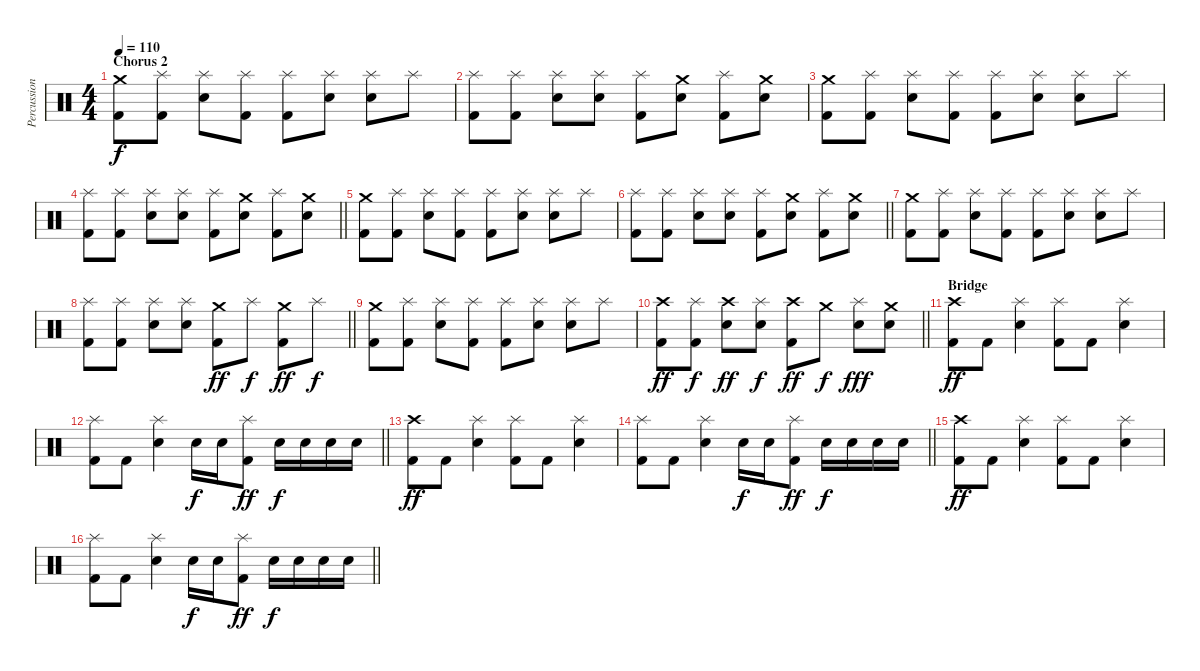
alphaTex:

\track ("Percussion" "Percussion") {instrument percussion}
\staff {score}
\articulation defaults
\ts (4 4)
\section ("" "Chorus 2")
\tempo 110
\clef neutral
\ks c
("Crash medium (hit)" "Kick (hit) 2").8{dy f} ("Splash (hit)" "Kick (hit) 2").8 ("Splash (hit)" "Snare (hit) 2").8 ("Splash (hit)" "Kick (hit) 2").8 ("Splash (hit)" "Kick (hit) 2").8 ("Splash (hit)" "Snare (hit) 2").8 ("Splash (hit)" "Snare (hit) 2").8 "Splash (hit)".8 |
("Splash (hit)" "Kick (hit) 2").8 ("Splash (hit)" "Kick (hit) 2").8 ("Splash (hit)" "Snare (hit) 2").8 ("Splash (hit)" "Snare (hit) 2").8 ("Splash (hit)" "Kick (hit) 2").8 ("Crash medium (hit)" "Snare (hit) 2").8 ("Splash (hit)" "Kick (hit) 2").8 ("Crash medium (hit)" "Snare (hit) 2").8 |
("Crash medium (hit)" "Kick (hit) 2").8 ("Splash (hit)" "Kick (hit) 2").8 ("Splash (hit)" "Snare (hit) 2").8 ("Splash (hit)" "Kick (hit) 2").8 ("Splash (hit)" "Kick (hit) 2").8 ("Splash (hit)" "Snare (hit) 2").8 ("Splash (hit)" "Snare (hit) 2").8 "Splash (hit)".8 |
\barLineRight lightlight
("Splash (hit)" "Kick (hit) 2").8 ("Splash (hit)" "Kick (hit) 2").8 ("Splash (hit)" "Snare (hit) 2").8 ("Splash (hit)" "Snare (hit) 2").8 ("Splash (hit)" "Kick (hit) 2").8 ("Crash medium (hit)" "Snare (hit) 2").8 ("Splash (hit)" "Kick (hit) 2").8 ("Crash medium (hit)" "Snare (hit) 2").8 |
("Crash medium (hit)" "Kick (hit) 2").8 ("Splash (hit)" "Kick (hit) 2").8 ("Splash (hit)" "Snare (hit) 2").8 ("Splash (hit)" "Kick (hit) 2").8 ("Splash (hit)" "Kick (hit) 2").8 ("Splash (hit)" "Snare (hit) 2").8 ("Splash (hit)" "Snare (hit) 2").8 "Splash (hit)".8 |
\barLineRight lightlight
("Splash (hit)" "Kick (hit) 2").8 ("Splash (hit)" "Kick (hit) 2").8 ("Splash (hit)" "Snare (hit) 2").8 ("Splash (hit)" "Snare (hit) 2").8 ("Splash (hit)" "Kick (hit) 2").8 ("Crash medium (hit)" "Snare (hit) 2").8 ("Splash (hit)" "Kick (hit) 2").8 ("Crash medium (hit)" "Snare (hit) 2").8 |
("Crash medium (hit)" "Kick (hit) 2").8 ("Splash (hit)" "Kick (hit) 2").8 ("Splash (hit)" "Snare (hit) 2").8 ("Splash (hit)" "Kick (hit) 2").8 ("Splash (hit)" "Kick (hit) 2").8 ("Splash (hit)" "Snare (hit) 2").8 ("Splash (hit)" "Snare (hit) 2").8 "Splash (hit)".8 |
\barLineRight lightlight
("Splash (hit)" "Kick (hit) 2").8 ("Splash (hit)" "Kick (hit) 2").8 ("Splash (hit)" "Snare (hit) 2").8 ("Splash (hit)" "Snare (hit) 2").8 ("Crash medium (hit)" "Kick (hit) 2").8{dy ff} "Splash (hit)".8{dy f} ("Crash medium (hit)" "Kick (hit) 2").8{dy ff} "Splash (hit)".8{dy f} |
("Crash medium (hit)" "Kick (hit) 2").8 ("Splash (hit)" "Kick (hit) 2").8 ("Splash (hit)" "Snare (hit) 2").8 ("Splash (hit)" "Kick (hit) 2").8 ("Splash (hit)" "Kick (hit) 2").8 ("Splash (hit)" "Snare (hit) 2").8 ("Splash (hit)" "Snare (hit) 2").8 "Splash (hit)".8 |
\barLineRight lightlight
("Crash high (hit)" "Kick (hit) 2").8{dy ff} ("Splash (hit)" "Kick (hit) 2").8{dy f} ("Crash high (hit)" "Snare (hit) 2").8{dy ff} ("Splash (hit)" "Snare (hit) 2").8{dy f} ("Crash high (hit)" "Kick (hit) 2").8{dy ff} "Crash medium (hit)".8{dy f} ("Splash (hit)" "Snare (hit) 2").8{dy fff} ("Crash medium (hit)" "Snare (hit) 2").8 |
\section ("" "Bridge")
("Crash high (hit)" "Kick (hit) 2").8{dy ff} "Kick (hit) 2".8 ("Splash (hit)" "Snare (hit) 2").4 ("Splash (hit)" "Kick (hit) 2").8 "Kick (hit) 2".8 ("Splash (hit)" "Snare (hit) 2").4 |
\barLineRight lightlight
("Splash (hit)" "Kick (hit) 2").8 "Kick (hit) 2".8 ("Splash (hit)" "Snare (hit) 2").4 "Snare (hit) 2".16{dy f} "Snare (hit) 2".16 ("Splash (hit)" "Kick (hit) 2").8{dy ff} "Snare (hit) 2".16{dy f} "Snare (hit) 2".16 "Snare (hit) 2".16 "Snare (hit) 2".16 |
("Crash high (hit)" "Kick (hit) 2").8{dy ff} "Kick (hit) 2".8 ("Splash (hit)" "Snare (hit) 2").4 ("Splash (hit)" "Kick (hit) 2").8 "Kick (hit) 2".8 ("Splash (hit)" "Snare (hit) 2").4 |
\barLineRight lightlight
("Splash (hit)" "Kick (hit) 2").8 "Kick (hit) 2".8 ("Splash (hit)" "Snare (hit) 2").4 "Snare (hit) 2".16{dy f} "Snare (hit) 2".16 ("Splash (hit)" "Kick (hit) 2").8{dy ff} "Snare (hit) 2".16{dy f} "Snare (hit) 2".16 "Snare (hit) 2".16 "Snare (hit) 2".16 |
("Crash high (hit)" "Kick (hit) 2").8{dy ff} "Kick (hit) 2".8 ("Splash (hit)" "Snare (hit) 2").4 ("Splash (hit)" "Kick (hit) 2").8 "Kick (hit) 2".8 ("Splash (hit)" "Snare (hit) 2").4 |
\barLineRight lightlight
("Splash (hit)" "Kick (hit) 2").8 "Kick (hit) 2".8 ("Splash (hit)" "Snare (hit) 2").4 "Snare (hit) 2".16{dy f} "Snare (hit) 2".16 ("Splash (hit)" "Kick (hit) 2").8{dy ff} "Snare (hit) 2".16{dy f} "Snare (hit) 2".16 "Snare (hit) 2".16 "Snare (hit) 2".16
